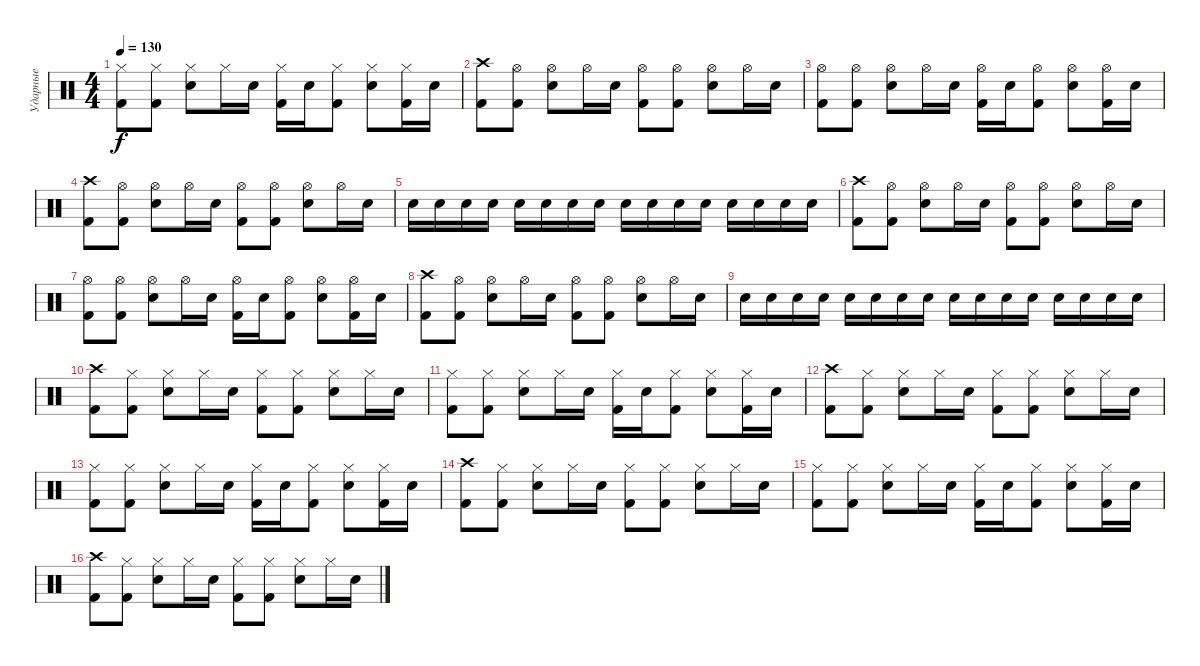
\track ("Ударные" "Ударные") {instrument percussion}
\staff {score}
\articulation defaults
\ts (4 4)
\tempo 130
\clef neutral
\ks c
("Kick (hit) 2" "Hi-Hat (closed)").8{dy f} ("Kick (hit) 2" "Hi-Hat (closed)").8 ("Snare (hit) 2" "Hi-Hat (closed)").8 "Hi-Hat (closed)".16 "Snare (hit) 2".16 ("Kick (hit) 2" "Hi-Hat (closed)").16 "Snare (hit) 2".16 ("Kick (hit) 2" "Hi-Hat (closed)").8 ("Snare (hit) 2" "Hi-Hat (closed)").8 ("Kick (hit) 2" "Hi-Hat (closed)").16 "Snare (hit) 2".16 |
("Kick (hit) 2" "Crash high (hit)").8 ("Kick (hit) 2" "Hi-Hat (open)").8 ("Snare (hit) 2" "Hi-Hat (open)").8 "Hi-Hat (open)".16 "Snare (hit) 2".16 ("Kick (hit) 2" "Hi-Hat (open)").8 ("Kick (hit) 2" "Hi-Hat (open)").8 ("Snare (hit) 2" "Hi-Hat (open)").8 "Hi-Hat (open)".16 "Snare (hit) 2".16 |
("Kick (hit) 2" "Hi-Hat (open)").8 ("Kick (hit) 2" "Hi-Hat (open)").8 ("Snare (hit) 2" "Hi-Hat (open)").8 "Hi-Hat (open)".16 "Snare (hit) 2".16 ("Kick (hit) 2" "Hi-Hat (open)").16 "Snare (hit) 2".16 ("Kick (hit) 2" "Hi-Hat (open)").8 ("Snare (hit) 2" "Hi-Hat (open)").8 ("Kick (hit) 2" "Hi-Hat (open)").16 "Snare (hit) 2".16 |
("Kick (hit) 2" "Crash high (hit)").8 ("Kick (hit) 2" "Hi-Hat (open)").8 ("Snare (hit) 2" "Hi-Hat (open)").8 "Hi-Hat (open)".16 "Snare (hit) 2".16 ("Kick (hit) 2" "Hi-Hat (open)").8 ("Kick (hit) 2" "Hi-Hat (open)").8 ("Snare (hit) 2" "Hi-Hat (open)").8 "Hi-Hat (open)".16 "Snare (hit) 2".16 |
"Snare (hit) 2".16 "Snare (hit) 2".16 "Snare (hit) 2".16 "Snare (hit) 2".16 "Snare (hit) 2".16 "Snare (hit) 2".16 "Snare (hit) 2".16 "Snare (hit) 2".16 "Snare (hit) 2".16 "Snare (hit) 2".16 "Snare (hit) 2".16 "Snare (hit) 2".16 "Snare (hit) 2".16 "Snare (hit) 2".16 "Snare (hit) 2".16 "Snare (hit) 2".16 |
("Kick (hit) 2" "Crash high (hit)").8 ("Kick (hit) 2" "Hi-Hat (open)").8 ("Snare (hit) 2" "Hi-Hat (open)").8 "Hi-Hat (open)".16 "Snare (hit) 2".16 ("Kick (hit) 2" "Hi-Hat (open)").8 ("Kick (hit) 2" "Hi-Hat (open)").8 ("Snare (hit) 2" "Hi-Hat (open)").8 "Hi-Hat (open)".16 "Snare (hit) 2".16 |
("Kick (hit) 2" "Hi-Hat (open)").8 ("Kick (hit) 2" "Hi-Hat (open)").8 ("Snare (hit) 2" "Hi-Hat (open)").8 "Hi-Hat (open)".16 "Snare (hit) 2".16 ("Kick (hit) 2" "Hi-Hat (open)").16 "Snare (hit) 2".16 ("Kick (hit) 2" "Hi-Hat (open)").8 ("Snare (hit) 2" "Hi-Hat (open)").8 ("Kick (hit) 2" "Hi-Hat (open)").16 "Snare (hit) 2".16 |
("Kick (hit) 2" "Crash high (hit)").8 ("Kick (hit) 2" "Hi-Hat (open)").8 ("Snare (hit) 2" "Hi-Hat (open)").8 "Hi-Hat (open)".16 "Snare (hit) 2".16 ("Kick (hit) 2" "Hi-Hat (open)").8 ("Kick (hit) 2" "Hi-Hat (open)").8 ("Snare (hit) 2" "Hi-Hat (open)").8 "Hi-Hat (open)".16 "Snare (hit) 2".16 |
"Snare (hit) 2".16 "Snare (hit) 2".16 "Snare (hit) 2".16 "Snare (hit) 2".16 "Snare (hit) 2".16 "Snare (hit) 2".16 "Snare (hit) 2".16 "Snare (hit) 2".16 "Snare (hit) 2".16 "Snare (hit) 2".16 "Snare (hit) 2".16 "Snare (hit) 2".16 "Snare (hit) 2".16 "Snare (hit) 2".16 "Snare (hit) 2".16 "Snare (hit) 2".16 |
("Kick (hit) 2" "Crash high (hit)").8 ("Kick (hit) 2" "Hi-Hat (closed)").8 ("Snare (hit) 2" "Hi-Hat (closed)").8 "Hi-Hat (closed)".16 "Snare (hit) 2".16 ("Kick (hit) 2" "Hi-Hat (closed)").8 ("Kick (hit) 2" "Hi-Hat (closed)").8 ("Snare (hit) 2" "Hi-Hat (closed)").8 "Hi-Hat (closed)".16 "Snare (hit) 2".16 |
("Kick (hit) 2" "Hi-Hat (closed)").8 ("Kick (hit) 2" "Hi-Hat (closed)").8 ("Snare (hit) 2" "Hi-Hat (closed)").8 "Hi-Hat (closed)".16 "Snare (hit) 2".16 ("Kick (hit) 2" "Hi-Hat (closed)").16 "Snare (hit) 2".16 ("Kick (hit) 2" "Hi-Hat (closed)").8 ("Snare (hit) 2" "Hi-Hat (closed)").8 ("Kick (hit) 2" "Hi-Hat (closed)").16 "Snare (hit) 2".16 |
("Kick (hit) 2" "Crash high (hit)").8 ("Kick (hit) 2" "Hi-Hat (closed)").8 ("Snare (hit) 2" "Hi-Hat (closed)").8 "Hi-Hat (closed)".16 "Snare (hit) 2".16 ("Kick (hit) 2" "Hi-Hat (closed)").8 ("Kick (hit) 2" "Hi-Hat (closed)").8 ("Snare (hit) 2" "Hi-Hat (closed)").8 "Hi-Hat (closed)".16 "Snare (hit) 2".16 |
("Kick (hit) 2" "Hi-Hat (closed)").8 ("Kick (hit) 2" "Hi-Hat (closed)").8 ("Snare (hit) 2" "Hi-Hat (closed)").8 "Hi-Hat (closed)".16 "Snare (hit) 2".16 ("Kick (hit) 2" "Hi-Hat (closed)").16 "Snare (hit) 2".16 ("Kick (hit) 2" "Hi-Hat (closed)").8 ("Snare (hit) 2" "Hi-Hat (closed)").8 ("Kick (hit) 2" "Hi-Hat (closed)").16 "Snare (hit) 2".16 |
("Kick (hit) 2" "Crash high (hit)").8 ("Kick (hit) 2" "Hi-Hat (closed)").8 ("Snare (hit) 2" "Hi-Hat (closed)").8 "Hi-Hat (closed)".16 "Snare (hit) 2".16 ("Kick (hit) 2" "Hi-Hat (closed)").8 ("Kick (hit) 2" "Hi-Hat (closed)").8 ("Snare (hit) 2" "Hi-Hat (closed)").8 "Hi-Hat (closed)".16 "Snare (hit) 2".16 |
("Kick (hit) 2" "Hi-Hat (closed)").8 ("Kick (hit) 2" "Hi-Hat (closed)").8 ("Snare (hit) 2" "Hi-Hat (closed)").8 "Hi-Hat (closed)".16 "Snare (hit) 2".16 ("Kick (hit) 2" "Hi-Hat (closed)").16 "Snare (hit) 2".16 ("Kick (hit) 2" "Hi-Hat (closed)").8 ("Snare (hit) 2" "Hi-Hat (closed)").8 ("Kick (hit) 2" "Hi-Hat (closed)").16 "Snare (hit) 2".16 |
("Kick (hit) 2" "Crash high (hit)").8 ("Kick (hit) 2" "Hi-Hat (closed)").8 ("Snare (hit) 2" "Hi-Hat (closed)").8 "Hi-Hat (closed)".16 "Snare (hit) 2".16 ("Kick (hit) 2" "Hi-Hat (closed)").8 ("Kick (hit) 2" "Hi-Hat (closed)").8 ("Snare (hit) 2" "Hi-Hat (closed)").8 "Hi-Hat (closed)".16 "Snare (hit) 2".16
